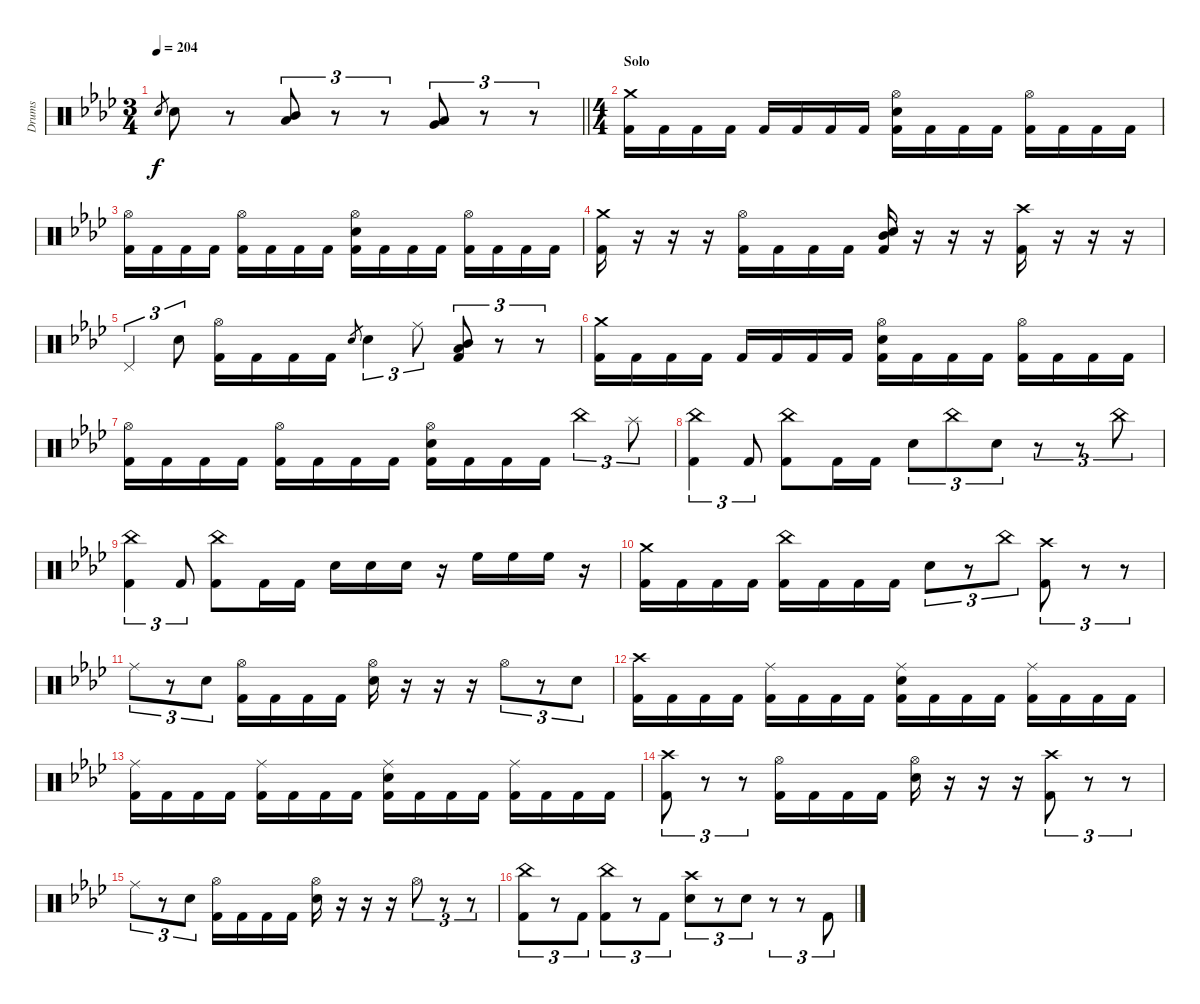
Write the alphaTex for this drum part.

\bracketExtendMode groupsimilarinstruments
\otherSystemsTrackNameOrientation horizontal
\track ("Guyot Begin-Benoit" "Drums") {instrument percussion}
\staff {score}
\articulation defaults
\ts (3 4)
\tempo 204
\clef neutral
\barLineRight lightlight
\ks ab "Snare (hit) 2"{acc forcenatural}.8{gr dy f beam Up} "Snare (hit) 2"{acc forcenatural}.8{beam Down}
r.8{beam Down} ("Mid Tom (hit)"{acc forcenatural} "Low Tom (hit)"{acc forcenatural}).8{tu (3 2) beam Up} r.8{tu (3 2) beam Up} r.8{tu (3 2) beam Up} ("Low Tom (hit)"{acc forcenatural} "Very Low Tom (hit)"{acc forcenatural}).8{tu (3 2) beam Up} r.8{tu (3 2) beam Up} r.8{tu (3 2) beam Up} |
\ts (4 4)
\beaming (8 2 2 2 2)
\section ("" "Solo")
("Crash medium (hit)"{acc forcenatural} "Kick (hit) 2"{acc forcenatural}).16{beam Down} "Kick (hit) 2"{acc forcenatural}.16{beam Down} "Kick (hit) 2"{acc forcenatural}.16{beam Down} "Kick (hit) 2"{acc forcenatural}.16{beam Down} "Kick (hit) 2"{acc forcenatural}.16{beam Up} "Kick (hit) 2"{acc forcenatural}.16{beam Up} "Kick (hit) 2"{acc forcenatural}.16{beam Up} "Kick (hit) 2"{acc forcenatural}.16{beam Up} ("Hi-Hat (open)"{acc forcenatural} "Snare (hit) 2"{acc forcenatural} "Kick (hit) 2"{acc forcenatural}).16{beam Down} "Kick (hit) 2"{acc forcenatural}.16{beam Down} "Kick (hit) 2"{acc forcenatural}.16{beam Down} "Kick (hit) 2"{acc forcenatural}.16{beam Down} ("Hi-Hat (open)"{acc forcenatural} "Kick (hit) 2"{acc forcenatural}).16{beam Down} "Kick (hit) 2"{acc forcenatural}.16{beam Down} "Kick (hit) 2"{acc forcenatural}.16{beam Down} "Kick (hit) 2"{acc forcenatural}.16{beam Down} |
("Hi-Hat (open)"{acc forcenatural} "Kick (hit) 2"{acc forcenatural}).16{beam Down} "Kick (hit) 2"{acc forcenatural}.16{beam Down} "Kick (hit) 2"{acc forcenatural}.16{beam Down} "Kick (hit) 2"{acc forcenatural}.16{beam Down} ("Hi-Hat (open)"{acc forcenatural} "Kick (hit) 2"{acc forcenatural}).16{beam Down} "Kick (hit) 2"{acc forcenatural}.16{beam Down} "Kick (hit) 2"{acc forcenatural}.16{beam Down} "Kick (hit) 2"{acc forcenatural}.16{beam Down} ("Hi-Hat (open)"{acc forcenatural} "Snare (hit) 2"{acc forcenatural} "Kick (hit) 2"{acc forcenatural}).16{beam Down} "Kick (hit) 2"{acc forcenatural}.16{beam Down} "Kick (hit) 2"{acc forcenatural}.16{beam Down} "Kick (hit) 2"{acc forcenatural}.16{beam Down} ("Hi-Hat (open)"{acc forcenatural} "Kick (hit) 2"{acc forcenatural}).16{beam Down} "Kick (hit) 2"{acc forcenatural}.16{beam Down} "Kick (hit) 2"{acc forcenatural}.16{beam Down} "Kick (hit) 2"{acc forcenatural}.16{beam Down} |
("Crash medium (hit)"{acc forcenatural} "Kick (hit) 2"{acc forcenatural}).16{beam Down} r.16{beam Down} r.16{beam Down} r.16{beam Down} ("Hi-Hat (open)"{acc forcenatural} "Kick (hit) 2"{acc forcenatural}).16{beam Down} "Kick (hit) 2"{acc forcenatural}.16{beam Down} "Kick (hit) 2"{acc forcenatural}.16{beam Down} "Kick (hit) 2"{acc forcenatural}.16{beam Down} ("Mid Tom (hit)"{acc forcenatural} "Snare (hit) 2"{acc forcenatural} "Kick (hit) 2"{acc forcenatural}).16{beam Up} r.16{beam Up} r.16{beam Up} r.16{beam Up} ("Crash high (hit)"{acc forcenatural} "Kick (hit) 2"{acc forcenatural}).16{beam Down} r.16{beam Down} r.16{beam Down} r.16{beam Down} |
"Pedal Hi-Hat (hit)"{acc forcenatural}.4{tu (3 2) beam Up} "Snare (hit) 2"{acc forcenatural}.8{tu (3 2) beam Down} ("Hi-Hat (open)"{acc forcenatural} "Kick (hit) 2"{acc forcenatural}).16{beam Down} "Kick (hit) 2"{acc forcenatural}.16{beam Down} "Kick (hit) 2"{acc forcenatural}.16{beam Down} "Kick (hit) 2"{acc forcenatural}.16{beam Down} "Snare (hit) 2"{acc forcenatural}.8{gr beam Up} "Snare (hit) 2"{acc forcenatural}.4{tu (3 2) beam Down} "Ride (middle)"{acc forcenatural}.8{tu (3 2) beam Down} ("Low Tom (hit)"{acc forcenatural} "Mid Tom (hit)"{acc forcenatural} "Kick (hit) 2"{acc forcenatural}).8{tu (3 2) beam Up} r.8{tu (3 2) beam Up} r.8{tu (3 2) beam Up} |
("Crash medium (hit)"{acc forcenatural} "Kick (hit) 2"{acc forcenatural}).16{beam Down} "Kick (hit) 2"{acc forcenatural}.16{beam Down} "Kick (hit) 2"{acc forcenatural}.16{beam Down} "Kick (hit) 2"{acc forcenatural}.16{beam Down} "Kick (hit) 2"{acc forcenatural}.16{beam Up} "Kick (hit) 2"{acc forcenatural}.16{beam Up} "Kick (hit) 2"{acc forcenatural}.16{beam Up} "Kick (hit) 2"{acc forcenatural}.16{beam Up} ("Hi-Hat (open)"{acc forcenatural} "Snare (hit) 2"{acc forcenatural} "Kick (hit) 2"{acc forcenatural}).16{beam Down} "Kick (hit) 2"{acc forcenatural}.16{beam Down} "Kick (hit) 2"{acc forcenatural}.16{beam Down} "Kick (hit) 2"{acc forcenatural}.16{beam Down} ("Hi-Hat (open)"{acc forcenatural} "Kick (hit) 2"{acc forcenatural}).16{beam Down} "Kick (hit) 2"{acc forcenatural}.16{beam Down} "Kick (hit) 2"{acc forcenatural}.16{beam Down} "Kick (hit) 2"{acc forcenatural}.16{beam Down} |
("Hi-Hat (open)"{acc forcenatural} "Kick (hit) 2"{acc forcenatural}).16{beam Down} "Kick (hit) 2"{acc forcenatural}.16{beam Down} "Kick (hit) 2"{acc forcenatural}.16{beam Down} "Kick (hit) 2"{acc forcenatural}.16{beam Down} ("Hi-Hat (open)"{acc forcenatural} "Kick (hit) 2"{acc forcenatural}).16{beam Down} "Kick (hit) 2"{acc forcenatural}.16{beam Down} "Kick (hit) 2"{acc forcenatural}.16{beam Down} "Kick (hit) 2"{acc forcenatural}.16{beam Down} ("Hi-Hat (open)"{acc forcenatural} "Snare (hit) 2"{acc forcenatural} "Kick (hit) 2"{acc forcenatural}).16{beam Down} "Kick (hit) 2"{acc forcenatural}.16{beam Down} "Kick (hit) 2"{acc forcenatural}.16{beam Down} "Kick (hit) 2"{acc forcenatural}.16{beam Down} "China (hit)"{acc forcenatural}.4{tu (3 2) beam Down} "Splash (hit)"{acc forcenatural}.8{tu (3 2) beam Down} |
("China (hit)"{acc forcenatural} "Kick (hit) 2"{acc forcenatural}).4{tu (3 2) beam Down} "Kick (hit) 2"{acc forcenatural}.8{tu (3 2) beam Up} ("China (hit)"{acc forcenatural} "Kick (hit) 2"{acc forcenatural}).8{beam Down} "Kick (hit) 2"{acc forcenatural}.16{beam Down} "Kick (hit) 2"{acc forcenatural}.16{beam Down} "Snare (hit) 2"{acc forcenatural}.8{tu (3 2) beam Down} "China (hit)"{acc forcenatural}.8{tu (3 2) beam Down} "Snare (hit) 2"{acc forcenatural}.8{tu (3 2) beam Down} r.8{tu (3 2) beam Down} r.8{tu (3 2) beam Down} "China (hit)"{acc forcenatural}.8{tu (3 2) beam Down} |
("China (hit)"{acc forcenatural} "Kick (hit) 2"{acc forcenatural}).4{tu (3 2) beam Down} "Kick (hit) 2"{acc forcenatural}.8{tu (3 2) beam Up} ("China (hit)"{acc forcenatural} "Kick (hit) 2"{acc forcenatural}).8{beam Down} "Kick (hit) 2"{acc forcenatural}.16{beam Down} "Kick (hit) 2"{acc forcenatural}.16{beam Down} "Snare (hit) 2"{acc forcenatural}.16{beam Down} "Snare (hit) 2"{acc forcenatural}.16{beam Down} "Snare (hit) 2"{acc forcenatural}.16{beam Down} r.16{beam Down} "High Floor Tom (hit)"{acc forcenatural}.16{beam Down} "High Floor Tom (hit)"{acc forcenatural}.16{beam Down} "High Floor Tom (hit)"{acc forcenatural}.16{beam Down} r.16{beam Down} |
("Crash medium (hit)"{acc forcenatural} "Kick (hit) 2"{acc forcenatural}).16{beam Down} "Kick (hit) 2"{acc forcenatural}.16{beam Down} "Kick (hit) 2"{acc forcenatural}.16{beam Down} "Kick (hit) 2"{acc forcenatural}.16{beam Down} ("China (hit)"{acc forcenatural} "Kick (hit) 2"{acc forcenatural}).16{beam Down} "Kick (hit) 2"{acc forcenatural}.16{beam Down} "Kick (hit) 2"{acc forcenatural}.16{beam Down} "Kick (hit) 2"{acc forcenatural}.16{beam Down} "Snare (hit) 2"{acc forcenatural}.8{tu (3 2) beam Down} r.8{tu (3 2) beam Down} "China (hit)"{acc forcenatural}.8{tu (3 2) beam Down} ("Crash high (hit)"{acc forcenatural} "Kick (hit) 2"{acc forcenatural}).8{tu (3 2) beam Down} r.8{tu (3 2) beam Down} r.8{tu (3 2) beam Down} |
"Ride (middle)"{acc forcenatural}.8{tu (3 2) beam Down} r.8{tu (3 2) beam Down} "Snare (hit) 2"{acc forcenatural}.8{tu (3 2) beam Down} ("Hi-Hat (open)"{acc forcenatural} "Kick (hit) 2"{acc forcenatural}).16{beam Down} "Kick (hit) 2"{acc forcenatural}.16{beam Down} "Kick (hit) 2"{acc forcenatural}.16{beam Down} "Kick (hit) 2"{acc forcenatural}.16{beam Down} ("Hi-Hat (open)"{acc forcenatural} "Snare (hit) 2"{acc forcenatural}).16{beam Down} r.16{beam Down} r.16{beam Down} r.16{beam Down} "Hi-Hat (open)"{acc forcenatural}.8{tu (3 2) beam Down} r.8{tu (3 2) beam Down} "Snare (hit) 2"{acc forcenatural}.8{tu (3 2) beam Down} |
("Crash high (hit)"{acc forcenatural} "Kick (hit) 2"{acc forcenatural}).16{beam Down} "Kick (hit) 2"{acc forcenatural}.16{beam Down} "Kick (hit) 2"{acc forcenatural}.16{beam Down} "Kick (hit) 2"{acc forcenatural}.16{beam Down} ("Ride (middle)"{acc forcenatural} "Kick (hit) 2"{acc forcenatural}).16{beam Down} "Kick (hit) 2"{acc forcenatural}.16{beam Down} "Kick (hit) 2"{acc forcenatural}.16{beam Down} "Kick (hit) 2"{acc forcenatural}.16{beam Down} ("Ride (middle)"{acc forcenatural} "Snare (hit) 2"{acc forcenatural} "Kick (hit) 2"{acc forcenatural}).16{beam Down} "Kick (hit) 2"{acc forcenatural}.16{beam Down} "Kick (hit) 2"{acc forcenatural}.16{beam Down} "Kick (hit) 2"{acc forcenatural}.16{beam Down} ("Ride (middle)"{acc forcenatural} "Kick (hit) 2"{acc forcenatural}).16{beam Down} "Kick (hit) 2"{acc forcenatural}.16{beam Down} "Kick (hit) 2"{acc forcenatural}.16{beam Down} "Kick (hit) 2"{acc forcenatural}.16{beam Down} |
("Ride (middle)"{acc forcenatural} "Kick (hit) 2"{acc forcenatural}).16{beam Down} "Kick (hit) 2"{acc forcenatural}.16{beam Down} "Kick (hit) 2"{acc forcenatural}.16{beam Down} "Kick (hit) 2"{acc forcenatural}.16{beam Down} ("Ride (middle)"{acc forcenatural} "Kick (hit) 2"{acc forcenatural}).16{beam Down} "Kick (hit) 2"{acc forcenatural}.16{beam Down} "Kick (hit) 2"{acc forcenatural}.16{beam Down} "Kick (hit) 2"{acc forcenatural}.16{beam Down} ("Ride (middle)"{acc forcenatural} "Snare (hit) 2"{acc forcenatural} "Kick (hit) 2"{acc forcenatural}).16{beam Down} "Kick (hit) 2"{acc forcenatural}.16{beam Down} "Kick (hit) 2"{acc forcenatural}.16{beam Down} "Kick (hit) 2"{acc forcenatural}.16{beam Down} ("Ride (middle)"{acc forcenatural} "Kick (hit) 2"{acc forcenatural}).16{beam Down} "Kick (hit) 2"{acc forcenatural}.16{beam Down} "Kick (hit) 2"{acc forcenatural}.16{beam Down} "Kick (hit) 2"{acc forcenatural}.16{beam Down} |
("Crash high (hit)"{acc forcenatural} "Kick (hit) 2"{acc forcenatural}).8{tu (3 2) beam Down} r.8{tu (3 2) beam Down} r.8{tu (3 2) beam Down} ("Hi-Hat (open)"{acc forcenatural} "Kick (hit) 2"{acc forcenatural}).16{beam Down} "Kick (hit) 2"{acc forcenatural}.16{beam Down} "Kick (hit) 2"{acc forcenatural}.16{beam Down} "Kick (hit) 2"{acc forcenatural}.16{beam Down} ("Hi-Hat (open)"{acc forcenatural} "Snare (hit) 2"{acc forcenatural}).16{beam Down} r.16{beam Down} r.16{beam Down} r.16{beam Down} ("Crash high (hit)"{acc forcenatural} "Kick (hit) 2"{acc forcenatural}).8{tu (3 2) beam Down} r.8{tu (3 2) beam Down} r.8{tu (3 2) beam Down} |
"Ride (middle)"{acc forcenatural}.8{tu (3 2) beam Down} r.8{tu (3 2) beam Down} "Snare (hit) 2"{acc forcenatural}.8{tu (3 2) beam Down} ("Hi-Hat (open)"{acc forcenatural} "Kick (hit) 2"{acc forcenatural}).16{beam Down} "Kick (hit) 2"{acc forcenatural}.16{beam Down} "Kick (hit) 2"{acc forcenatural}.16{beam Down} "Kick (hit) 2"{acc forcenatural}.16{beam Down} ("Hi-Hat (open)"{acc forcenatural} "Snare (hit) 2"{acc forcenatural}).16{beam Down} r.16{beam Down} r.16{beam Down} r.16{beam Down} "Hi-Hat (open)"{acc forcenatural}.8{tu (3 2) beam Down} r.8{tu (3 2) beam Down} r.8{tu (3 2) beam Down} |
("China (hit)"{acc forcenatural} "Kick (hit) 2"{acc forcenatural}).8{tu (3 2) beam Down} r.8{tu (3 2) beam Down} "Kick (hit) 2"{acc forcenatural}.8{tu (3 2) beam Down} ("China (hit)"{acc forcenatural} "Kick (hit) 2"{acc forcenatural}).8{tu (3 2) beam Down} r.8{tu (3 2) beam Down} "Kick (hit) 2"{acc forcenatural}.8{tu (3 2) beam Down} ("Crash high (hit)"{acc forcenatural} "Snare (hit) 2"{acc forcenatural}).8{tu (3 2) beam Down} r.8{tu (3 2) beam Down} "Snare (hit) 2"{acc forcenatural}.8{tu (3 2) beam Down} r.8{tu (3 2) beam Down} r.8{tu (3 2) beam Down} "Kick (hit) 2"{acc forcenatural}.8{tu (3 2) beam Up}
